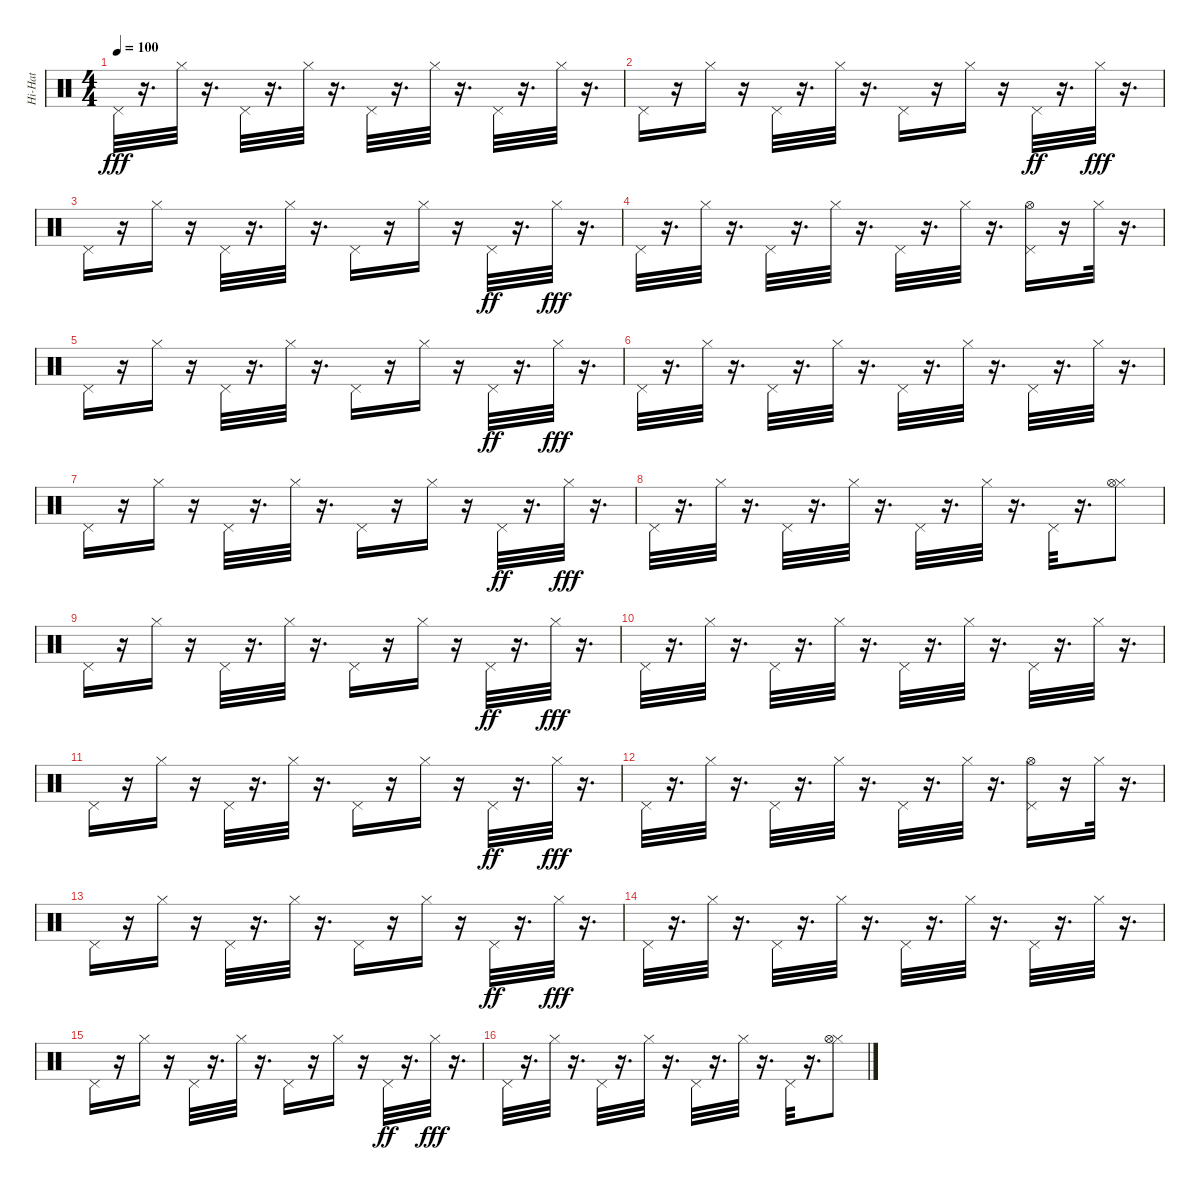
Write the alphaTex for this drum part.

\track ("Hi-Hat" "Hi-Hat") {instrument percussion}
\staff {score}
\articulation defaults
\ts (4 4)
\tempo 100
\clef neutral
\ks c "Pedal Hi-Hat (hit)".32{dy fff}
r.16{d} "Hi-Hat (closed)".32 r.16{d} "Pedal Hi-Hat (hit)".32 r.16{d} "Hi-Hat (closed)".32 r.16{d} "Pedal Hi-Hat (hit)".32 r.16{d} "Hi-Hat (closed)".32 r.16{d} "Pedal Hi-Hat (hit)".32 r.16{d} "Hi-Hat (closed)".32 r.16{d} |
"Pedal Hi-Hat (hit)".16 r.16 "Hi-Hat (closed)".16 r.16 "Pedal Hi-Hat (hit)".32 r.16{d} "Hi-Hat (closed)".32 r.16{d} "Pedal Hi-Hat (hit)".16 r.16 "Hi-Hat (closed)".16 r.16 "Pedal Hi-Hat (hit)".32{dy ff} r.16{d} "Hi-Hat (closed)".32{dy fff} r.16{d} |
"Pedal Hi-Hat (hit)".16 r.16 "Hi-Hat (closed)".16 r.16 "Pedal Hi-Hat (hit)".32 r.16{d} "Hi-Hat (closed)".32 r.16{d} "Pedal Hi-Hat (hit)".16 r.16 "Hi-Hat (closed)".16 r.16 "Pedal Hi-Hat (hit)".32{dy ff} r.16{d} "Hi-Hat (closed)".32{dy fff} r.16{d} |
"Pedal Hi-Hat (hit)".32 r.16{d} "Hi-Hat (closed)".32 r.16{d} "Pedal Hi-Hat (hit)".32 r.16{d} "Hi-Hat (closed)".32 r.16{d} "Pedal Hi-Hat (hit)".32 r.16{d} "Hi-Hat (closed)".32 r.16{d} ("Pedal Hi-Hat (hit)" "Hi-Hat (open)").16 r.16 "Hi-Hat (closed)".32 r.16{d} |
"Pedal Hi-Hat (hit)".16 r.16 "Hi-Hat (closed)".16 r.16 "Pedal Hi-Hat (hit)".32 r.16{d} "Hi-Hat (closed)".32 r.16{d} "Pedal Hi-Hat (hit)".16 r.16 "Hi-Hat (closed)".16 r.16 "Pedal Hi-Hat (hit)".32{dy ff} r.16{d} "Hi-Hat (closed)".32{dy fff} r.16{d} |
"Pedal Hi-Hat (hit)".32 r.16{d} "Hi-Hat (closed)".32 r.16{d} "Pedal Hi-Hat (hit)".32 r.16{d} "Hi-Hat (closed)".32 r.16{d} "Pedal Hi-Hat (hit)".32 r.16{d} "Hi-Hat (closed)".32 r.16{d} "Pedal Hi-Hat (hit)".32 r.16{d} "Hi-Hat (closed)".32 r.16{d} |
"Pedal Hi-Hat (hit)".16 r.16 "Hi-Hat (closed)".16 r.16 "Pedal Hi-Hat (hit)".32 r.16{d} "Hi-Hat (closed)".32 r.16{d} "Pedal Hi-Hat (hit)".16 r.16 "Hi-Hat (closed)".16 r.16 "Pedal Hi-Hat (hit)".32{dy ff} r.16{d} "Hi-Hat (closed)".32{dy fff} r.16{d} |
"Pedal Hi-Hat (hit)".32 r.16{d} "Hi-Hat (closed)".32 r.16{d} "Pedal Hi-Hat (hit)".32 r.16{d} "Hi-Hat (closed)".32 r.16{d} "Pedal Hi-Hat (hit)".32 r.16{d} "Hi-Hat (closed)".32 r.16{d} "Pedal Hi-Hat (hit)".32 r.16{d} ("Hi-Hat (closed)" "Hi-Hat (open)").8 |
"Pedal Hi-Hat (hit)".16 r.16 "Hi-Hat (closed)".16 r.16 "Pedal Hi-Hat (hit)".32 r.16{d} "Hi-Hat (closed)".32 r.16{d} "Pedal Hi-Hat (hit)".16 r.16 "Hi-Hat (closed)".16 r.16 "Pedal Hi-Hat (hit)".32{dy ff} r.16{d} "Hi-Hat (closed)".32{dy fff} r.16{d} |
"Pedal Hi-Hat (hit)".32 r.16{d} "Hi-Hat (closed)".32 r.16{d} "Pedal Hi-Hat (hit)".32 r.16{d} "Hi-Hat (closed)".32 r.16{d} "Pedal Hi-Hat (hit)".32 r.16{d} "Hi-Hat (closed)".32 r.16{d} "Pedal Hi-Hat (hit)".32 r.16{d} "Hi-Hat (closed)".32 r.16{d} |
"Pedal Hi-Hat (hit)".16 r.16 "Hi-Hat (closed)".16 r.16 "Pedal Hi-Hat (hit)".32 r.16{d} "Hi-Hat (closed)".32 r.16{d} "Pedal Hi-Hat (hit)".16 r.16 "Hi-Hat (closed)".16 r.16 "Pedal Hi-Hat (hit)".32{dy ff} r.16{d} "Hi-Hat (closed)".32{dy fff} r.16{d} |
"Pedal Hi-Hat (hit)".32 r.16{d} "Hi-Hat (closed)".32 r.16{d} "Pedal Hi-Hat (hit)".32 r.16{d} "Hi-Hat (closed)".32 r.16{d} "Pedal Hi-Hat (hit)".32 r.16{d} "Hi-Hat (closed)".32 r.16{d} ("Pedal Hi-Hat (hit)" "Hi-Hat (open)").16 r.16 "Hi-Hat (closed)".32 r.16{d} |
"Pedal Hi-Hat (hit)".16 r.16 "Hi-Hat (closed)".16 r.16 "Pedal Hi-Hat (hit)".32 r.16{d} "Hi-Hat (closed)".32 r.16{d} "Pedal Hi-Hat (hit)".16 r.16 "Hi-Hat (closed)".16 r.16 "Pedal Hi-Hat (hit)".32{dy ff} r.16{d} "Hi-Hat (closed)".32{dy fff} r.16{d} |
"Pedal Hi-Hat (hit)".32 r.16{d} "Hi-Hat (closed)".32 r.16{d} "Pedal Hi-Hat (hit)".32 r.16{d} "Hi-Hat (closed)".32 r.16{d} "Pedal Hi-Hat (hit)".32 r.16{d} "Hi-Hat (closed)".32 r.16{d} "Pedal Hi-Hat (hit)".32 r.16{d} "Hi-Hat (closed)".32 r.16{d} |
"Pedal Hi-Hat (hit)".16 r.16 "Hi-Hat (closed)".16 r.16 "Pedal Hi-Hat (hit)".32 r.16{d} "Hi-Hat (closed)".32 r.16{d} "Pedal Hi-Hat (hit)".16 r.16 "Hi-Hat (closed)".16 r.16 "Pedal Hi-Hat (hit)".32{dy ff} r.16{d} "Hi-Hat (closed)".32{dy fff} r.16{d} |
"Pedal Hi-Hat (hit)".32 r.16{d} "Hi-Hat (closed)".32 r.16{d} "Pedal Hi-Hat (hit)".32 r.16{d} "Hi-Hat (closed)".32 r.16{d} "Pedal Hi-Hat (hit)".32 r.16{d} "Hi-Hat (closed)".32 r.16{d} "Pedal Hi-Hat (hit)".32 r.16{d} ("Hi-Hat (closed)" "Hi-Hat (open)").8
